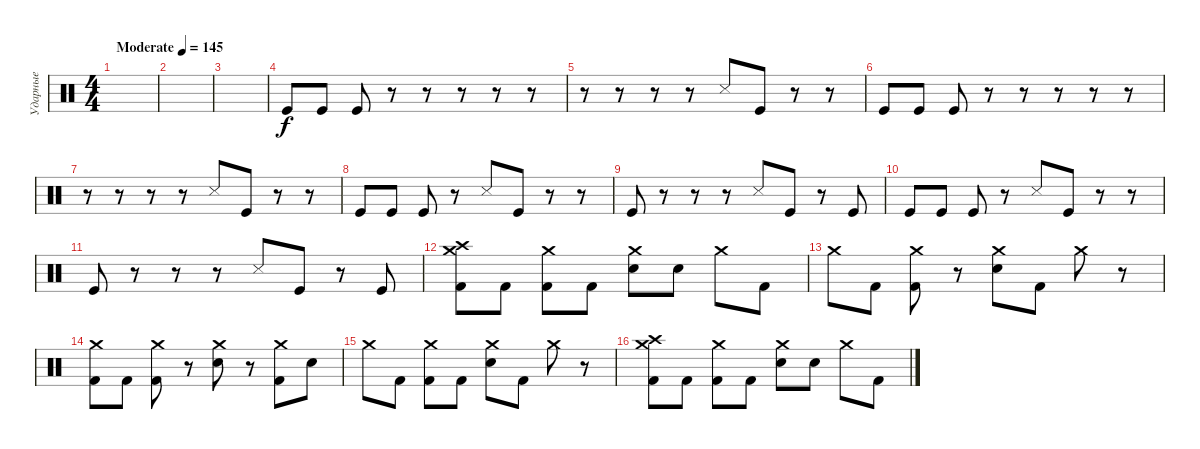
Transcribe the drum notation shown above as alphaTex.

\track ("Ударные" "Ударные") {instrument percussion}
\staff {score}
\articulation defaults
\ts (4 4)
\tempo (145 "Moderate")
\clef neutral
\ks c
|
|
|
"Kick (hit)".8 "Kick (hit)".8 "Kick (hit)".8 r.8 r.8 r.8 r.8 r.8 |
r.8 r.8 r.8 r.8 "Snare (side stick) 3".8 "Kick (hit)".8 r.8 r.8 |
"Kick (hit)".8 "Kick (hit)".8 "Kick (hit)".8 r.8 r.8 r.8 r.8 r.8 |
r.8 r.8 r.8 r.8 "Snare (side stick) 3".8 "Kick (hit)".8 r.8 r.8 |
"Kick (hit)".8 "Kick (hit)".8 "Kick (hit)".8 r.8 "Snare (side stick) 3".8 "Kick (hit)".8 r.8 r.8 |
"Kick (hit)".8 r.8 r.8 r.8 "Snare (side stick) 3".8 "Kick (hit)".8 r.8 "Kick (hit)".8 |
"Kick (hit)".8 "Kick (hit)".8 "Kick (hit)".8 r.8 "Snare (side stick) 3".8 "Kick (hit)".8 r.8 r.8 |
"Kick (hit)".8 r.8 r.8 r.8 "Snare (side stick) 3".8 "Kick (hit)".8 r.8 "Kick (hit)".8 |
("Crash high (hit)" "Crash medium (hit)" "Kick (hit) 2").8 "Kick (hit) 2".8 ("Crash medium (hit)" "Kick (hit) 2").8 "Kick (hit) 2".8 ("Crash medium (hit)" "Snare (hit) 2").8 "Snare (hit) 2".8 "Crash medium (hit)".8 "Kick (hit) 2".8 |
"Crash medium (hit)".8 "Kick (hit) 2".8 ("Crash medium (hit)" "Kick (hit) 2").8 r.8 ("Crash medium (hit)" "Snare (hit) 2").8 "Kick (hit) 2".8 "Crash medium (hit)".8 r.8 |
("Crash medium (hit)" "Kick (hit) 2").8 "Kick (hit) 2".8 ("Crash medium (hit)" "Kick (hit) 2").8 r.8 ("Crash medium (hit)" "Snare (hit) 2").8 r.8 ("Crash medium (hit)" "Kick (hit) 2").8 "Snare (hit) 2".8 |
"Crash medium (hit)".8 "Kick (hit) 2".8 ("Crash medium (hit)" "Kick (hit) 2").8 "Kick (hit) 2".8 ("Crash medium (hit)" "Snare (hit) 2").8 "Kick (hit) 2".8 "Crash medium (hit)".8 r.8 |
("Crash high (hit)" "Crash medium (hit)" "Kick (hit) 2").8 "Kick (hit) 2".8 ("Crash medium (hit)" "Kick (hit) 2").8 "Kick (hit) 2".8 ("Crash medium (hit)" "Snare (hit) 2").8 "Snare (hit) 2".8 "Crash medium (hit)".8 "Kick (hit) 2".8
